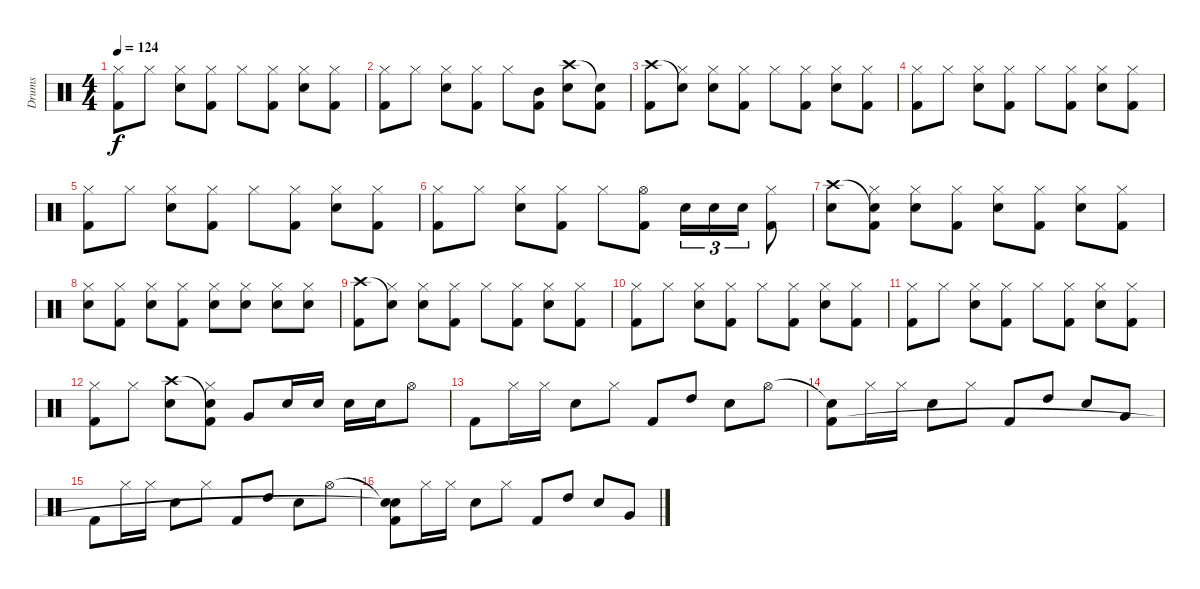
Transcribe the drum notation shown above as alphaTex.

\track ("Drums" "Drums") {instrument percussion}
\staff {score}
\articulation defaults
\ts (4 4)
\tempo 124
\clef neutral
\ks c
("Hi-Hat (closed)" "Kick (hit) 2").8{dy f} "Hi-Hat (closed)".8 ("Hi-Hat (closed)" "Snare (hit) 2").8 ("Hi-Hat (closed)" "Kick (hit) 2").8 "Hi-Hat (closed)".8 ("Hi-Hat (closed)" "Kick (hit) 2").8 ("Hi-Hat (closed)" "Snare (hit) 2").8 ("Hi-Hat (closed)" "Kick (hit) 2").8 |
("Hi-Hat (closed)" "Kick (hit) 2").8 "Hi-Hat (closed)".8 ("Hi-Hat (closed)" "Snare (hit) 2").8 ("Hi-Hat (closed)" "Kick (hit) 2").8 "Hi-Hat (closed)".8 ("Mid Tom (hit)" "Kick (hit) 2").8 ("Crash high (hit)" "Snare (hit) 2").8 ("Snare (hit)"{t} "Kick (hit) 2").8 |
("Crash high (hit)" "Kick (hit) 2").8 ("Snare (hit)"{t} "Hi-Hat (closed)").8 ("Hi-Hat (closed)" "Snare (hit) 2").8 ("Hi-Hat (closed)" "Kick (hit) 2").8 "Hi-Hat (closed)".8 ("Hi-Hat (closed)" "Kick (hit) 2").8 ("Hi-Hat (closed)" "Snare (hit) 2").8 ("Hi-Hat (closed)" "Kick (hit) 2").8 |
("Hi-Hat (closed)" "Kick (hit) 2").8 "Hi-Hat (closed)".8 ("Hi-Hat (closed)" "Snare (hit) 2").8 ("Hi-Hat (closed)" "Kick (hit) 2").8 "Hi-Hat (closed)".8 ("Hi-Hat (closed)" "Kick (hit) 2").8 ("Hi-Hat (closed)" "Snare (hit) 2").8 ("Hi-Hat (closed)" "Kick (hit) 2").8 |
("Hi-Hat (closed)" "Kick (hit) 2").8 "Hi-Hat (closed)".8 ("Hi-Hat (closed)" "Snare (hit) 2").8 ("Hi-Hat (closed)" "Kick (hit) 2").8 "Hi-Hat (closed)".8 ("Hi-Hat (closed)" "Kick (hit) 2").8 ("Hi-Hat (closed)" "Snare (hit) 2").8 ("Hi-Hat (closed)" "Kick (hit) 2").8 |
("Hi-Hat (closed)" "Kick (hit) 2").8 "Hi-Hat (closed)".8 ("Hi-Hat (closed)" "Snare (hit) 2").8 ("Hi-Hat (closed)" "Kick (hit) 2").8 "Hi-Hat (closed)".8 ("Hi-Hat (open)" "Kick (hit) 2").8 "Snare (hit) 2".16{tu (3 2)} "Snare (hit) 2".16{tu (3 2)} "Snare (hit) 2".16{tu (3 2)} ("Hi-Hat (closed)" "Kick (hit) 2").8 |
("Crash high (hit)" "Snare (hit) 2").8 ("Snare (hit)"{t} "Hi-Hat (closed)" "Kick (hit) 2").8 ("Hi-Hat (closed)" "Snare (hit) 2").8 ("Hi-Hat (closed)" "Kick (hit) 2").8 ("Hi-Hat (closed)" "Snare (hit) 2").8 ("Hi-Hat (closed)" "Kick (hit) 2").8 ("Hi-Hat (closed)" "Snare (hit) 2").8 ("Hi-Hat (closed)" "Kick (hit) 2").8 |
("Hi-Hat (closed)" "Snare (hit) 2").8 ("Hi-Hat (closed)" "Kick (hit) 2").8 ("Hi-Hat (closed)" "Snare (hit) 2").8 ("Hi-Hat (closed)" "Kick (hit) 2").8 ("Hi-Hat (closed)" "Snare (hit) 2").8 ("Hi-Hat (closed)" "Snare (hit) 2").8 ("Hi-Hat (closed)" "Snare (hit) 2").8 ("Hi-Hat (closed)" "Snare (hit) 2").8 |
("Crash high (hit)" "Kick (hit) 2").8 ("Snare (hit)"{t} "Hi-Hat (closed)").8 ("Hi-Hat (closed)" "Snare (hit) 2").8 ("Hi-Hat (closed)" "Kick (hit) 2").8 "Hi-Hat (closed)".8 ("Hi-Hat (closed)" "Kick (hit) 2").8 ("Hi-Hat (closed)" "Snare (hit) 2").8 ("Hi-Hat (closed)" "Kick (hit) 2").8 |
("Hi-Hat (closed)" "Kick (hit) 2").8 "Hi-Hat (closed)".8 ("Hi-Hat (closed)" "Snare (hit) 2").8 ("Hi-Hat (closed)" "Kick (hit) 2").8 "Hi-Hat (closed)".8 ("Hi-Hat (closed)" "Kick (hit) 2").8 ("Hi-Hat (closed)" "Snare (hit) 2").8 ("Hi-Hat (closed)" "Kick (hit) 2").8 |
("Hi-Hat (closed)" "Kick (hit) 2").8 "Hi-Hat (closed)".8 ("Hi-Hat (closed)" "Snare (hit) 2").8 ("Hi-Hat (closed)" "Kick (hit) 2").8 "Hi-Hat (closed)".8 ("Hi-Hat (closed)" "Kick (hit) 2").8 ("Hi-Hat (closed)" "Snare (hit) 2").8 ("Hi-Hat (closed)" "Kick (hit) 2").8 |
("Hi-Hat (closed)" "Kick (hit) 2").8 "Hi-Hat (closed)".8 ("Crash high (hit)" "Snare (hit) 2").8 ("Snare (hit)"{t} "Hi-Hat (closed)" "Kick (hit) 2").8 "Very Low Tom (hit)".8 "Snare (hit) 2".16 "Snare (hit) 2".16 "Snare (hit) 2".16 "Snare (hit) 2".16 "Hi-Hat (open)".8 |
"Kick (hit) 2".8 "Hi-Hat (closed)".16 "Hi-Hat (closed)".16 "Snare (hit) 2".8 "Hi-Hat (closed)".8 "Kick (hit) 2".8 "High Tom (hit)".8 "Snare (hit) 2".8 "Hi-Hat (open)".8 |
("Snare (hit)"{t} "Kick (hit) 2").8 "Hi-Hat (closed)".16 "Hi-Hat (closed)".16 "Snare (hit) 2".8 "Hi-Hat (closed)".8 "Kick (hit) 2".8 "High Tom (hit)".8 "Snare (hit) 2".8 "Very Low Tom (hit)".8 |
"Kick (hit) 2".8 "Hi-Hat (closed)".16 "Hi-Hat (closed)".16 "Snare (hit) 2".8 "Hi-Hat (closed)".8 "Kick (hit) 2".8 "High Tom (hit)".8 "Snare (hit) 2".8 "Hi-Hat (open)".8 |
("Snare (hit)"{t} "Snare (hit)"{t} "Kick (hit) 2").8 "Hi-Hat (closed)".16 "Hi-Hat (closed)".16 "Snare (hit) 2".8 "Hi-Hat (closed)".8 "Kick (hit) 2".8 "High Tom (hit)".8 "Snare (hit) 2".8 "Very Low Tom (hit)".8
